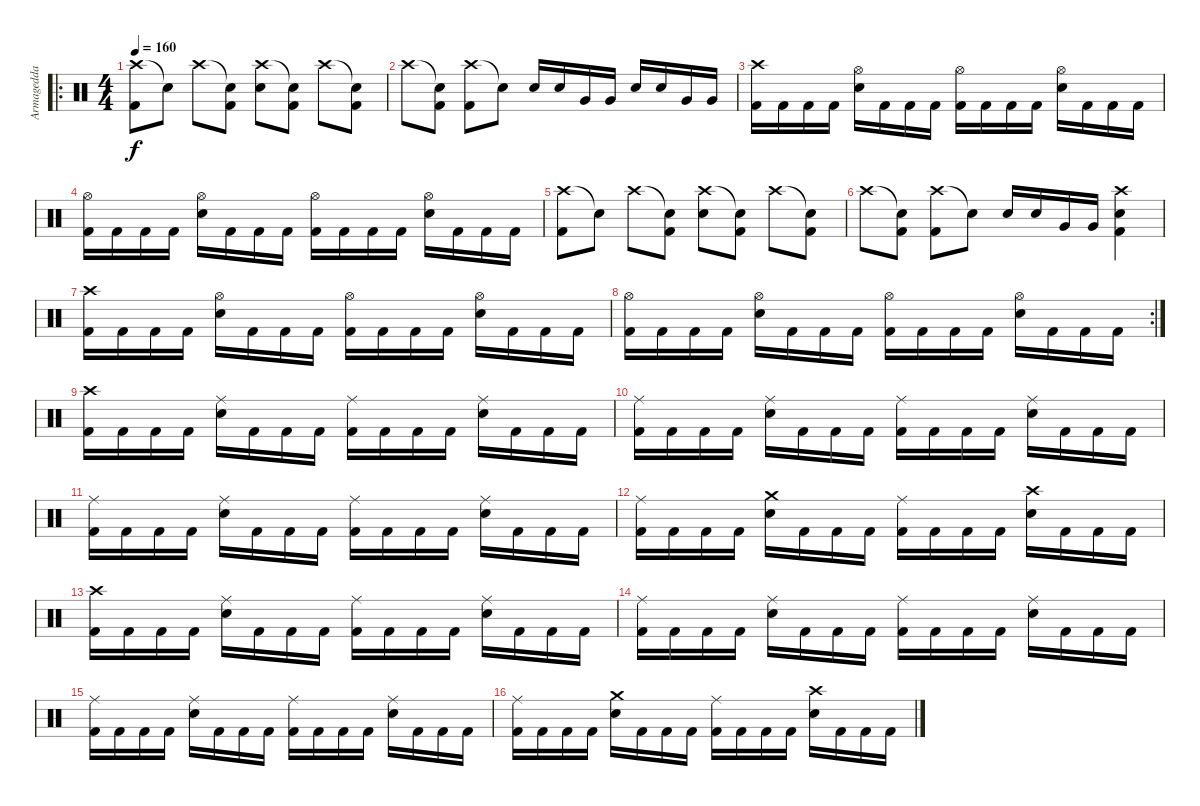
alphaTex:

\track ("Armagedda" "Armagedda") {instrument percussion}
\staff {score}
\articulation defaults
\ro
\ts (4 4)
\tempo 160
\clef neutral
\ks c
("Crash high (hit)" "Kick (hit) 2").8{dy f} "Snare (hit)"{t}.8 "Crash high (hit)".8 ("Snare (hit)"{t} "Kick (hit) 2").8 ("Crash high (hit)" "Snare (hit) 2").8 ("Snare (hit)"{t} "Kick (hit) 2").8 "Crash high (hit)".8 ("Snare (hit)"{t} "Kick (hit) 2").8 |
"Crash high (hit)".8 ("Snare (hit)"{t} "Kick (hit) 2").8 ("Crash high (hit)" "Kick (hit) 2").8 "Snare (hit)"{t}.8 "Snare (hit) 2".16 "Snare (hit) 2".16 "Very Low Tom (hit)".16 "Very Low Tom (hit)".16 "Snare (hit) 2".16 "Snare (hit) 2".16 "Very Low Tom (hit)".16 "Very Low Tom (hit)".16 |
("Crash high (hit)" "Kick (hit) 2").16 "Kick (hit) 2".16 "Kick (hit) 2".16 "Kick (hit) 2".16 ("Hi-Hat (open)" "Snare (hit) 2").16 "Kick (hit) 2".16 "Kick (hit) 2".16 "Kick (hit) 2".16 ("Hi-Hat (open)" "Kick (hit) 2").16 "Kick (hit) 2".16 "Kick (hit) 2".16 "Kick (hit) 2".16 ("Hi-Hat (open)" "Snare (hit) 2").16 "Kick (hit) 2".16 "Kick (hit) 2".16 "Kick (hit) 2".16 |
("Hi-Hat (open)" "Kick (hit) 2").16 "Kick (hit) 2".16 "Kick (hit) 2".16 "Kick (hit) 2".16 ("Hi-Hat (open)" "Snare (hit) 2").16 "Kick (hit) 2".16 "Kick (hit) 2".16 "Kick (hit) 2".16 ("Hi-Hat (open)" "Kick (hit) 2").16 "Kick (hit) 2".16 "Kick (hit) 2".16 "Kick (hit) 2".16 ("Hi-Hat (open)" "Snare (hit) 2").16 "Kick (hit) 2".16 "Kick (hit) 2".16 "Kick (hit) 2".16 |
("Crash high (hit)" "Kick (hit) 2").8 "Snare (hit)"{t}.8 "Crash high (hit)".8 ("Snare (hit)"{t} "Kick (hit) 2").8 ("Crash high (hit)" "Snare (hit) 2").8 ("Snare (hit)"{t} "Kick (hit) 2").8 "Crash high (hit)".8 ("Snare (hit)"{t} "Kick (hit) 2").8 |
"Crash high (hit)".8 ("Snare (hit)"{t} "Kick (hit) 2").8 ("Crash high (hit)" "Kick (hit) 2").8 "Snare (hit)"{t}.8 "Snare (hit) 2".16 "Snare (hit) 2".16 "Very Low Tom (hit)".16 "Very Low Tom (hit)".16 ("Crash high (hit)" "Snare (hit) 2" "Kick (hit) 2").4 |
("Crash high (hit)" "Kick (hit) 2").16 "Kick (hit) 2".16 "Kick (hit) 2".16 "Kick (hit) 2".16 ("Hi-Hat (open)" "Snare (hit) 2").16 "Kick (hit) 2".16 "Kick (hit) 2".16 "Kick (hit) 2".16 ("Hi-Hat (open)" "Kick (hit) 2").16 "Kick (hit) 2".16 "Kick (hit) 2".16 "Kick (hit) 2".16 ("Hi-Hat (open)" "Snare (hit) 2").16 "Kick (hit) 2".16 "Kick (hit) 2".16 "Kick (hit) 2".16 |
\rc 2
("Hi-Hat (open)" "Kick (hit) 2").16 "Kick (hit) 2".16 "Kick (hit) 2".16 "Kick (hit) 2".16 ("Hi-Hat (open)" "Snare (hit) 2").16 "Kick (hit) 2".16 "Kick (hit) 2".16 "Kick (hit) 2".16 ("Hi-Hat (open)" "Kick (hit) 2").16 "Kick (hit) 2".16 "Kick (hit) 2".16 "Kick (hit) 2".16 ("Hi-Hat (open)" "Snare (hit) 2").16 "Kick (hit) 2".16 "Kick (hit) 2".16 "Kick (hit) 2".16 |
("Crash high (hit)" "Kick (hit) 2").16 "Kick (hit) 2".16 "Kick (hit) 2".16 "Kick (hit) 2".16 ("Ride (middle)" "Snare (hit) 2").16 "Kick (hit) 2".16 "Kick (hit) 2".16 "Kick (hit) 2".16 ("Ride (middle)" "Kick (hit) 2").16 "Kick (hit) 2".16 "Kick (hit) 2".16 "Kick (hit) 2".16 ("Ride (middle)" "Snare (hit) 2").16 "Kick (hit) 2".16 "Kick (hit) 2".16 "Kick (hit) 2".16 |
("Ride (middle)" "Kick (hit) 2").16 "Kick (hit) 2".16 "Kick (hit) 2".16 "Kick (hit) 2".16 ("Ride (middle)" "Snare (hit) 2").16 "Kick (hit) 2".16 "Kick (hit) 2".16 "Kick (hit) 2".16 ("Ride (middle)" "Kick (hit) 2").16 "Kick (hit) 2".16 "Kick (hit) 2".16 "Kick (hit) 2".16 ("Ride (middle)" "Snare (hit) 2").16 "Kick (hit) 2".16 "Kick (hit) 2".16 "Kick (hit) 2".16 |
("Ride (middle)" "Kick (hit) 2").16 "Kick (hit) 2".16 "Kick (hit) 2".16 "Kick (hit) 2".16 ("Ride (middle)" "Snare (hit) 2").16 "Kick (hit) 2".16 "Kick (hit) 2".16 "Kick (hit) 2".16 ("Ride (middle)" "Kick (hit) 2").16 "Kick (hit) 2".16 "Kick (hit) 2".16 "Kick (hit) 2".16 ("Ride (middle)" "Snare (hit) 2").16 "Kick (hit) 2".16 "Kick (hit) 2".16 "Kick (hit) 2".16 |
("Ride (middle)" "Kick (hit) 2").16 "Kick (hit) 2".16 "Kick (hit) 2".16 "Kick (hit) 2".16 ("Crash medium (hit)" "Snare (hit) 2").16 "Kick (hit) 2".16 "Kick (hit) 2".16 "Kick (hit) 2".16 ("Ride (middle)" "Kick (hit) 2").16 "Kick (hit) 2".16 "Kick (hit) 2".16 "Kick (hit) 2".16 ("Crash high (hit)" "Snare (hit) 2").16 "Kick (hit) 2".16 "Kick (hit) 2".16 "Kick (hit) 2".16 |
("Crash high (hit)" "Kick (hit) 2").16 "Kick (hit) 2".16 "Kick (hit) 2".16 "Kick (hit) 2".16 ("Ride (middle)" "Snare (hit) 2").16 "Kick (hit) 2".16 "Kick (hit) 2".16 "Kick (hit) 2".16 ("Ride (middle)" "Kick (hit) 2").16 "Kick (hit) 2".16 "Kick (hit) 2".16 "Kick (hit) 2".16 ("Ride (middle)" "Snare (hit) 2").16 "Kick (hit) 2".16 "Kick (hit) 2".16 "Kick (hit) 2".16 |
("Ride (middle)" "Kick (hit) 2").16 "Kick (hit) 2".16 "Kick (hit) 2".16 "Kick (hit) 2".16 ("Ride (middle)" "Snare (hit) 2").16 "Kick (hit) 2".16 "Kick (hit) 2".16 "Kick (hit) 2".16 ("Ride (middle)" "Kick (hit) 2").16 "Kick (hit) 2".16 "Kick (hit) 2".16 "Kick (hit) 2".16 ("Ride (middle)" "Snare (hit) 2").16 "Kick (hit) 2".16 "Kick (hit) 2".16 "Kick (hit) 2".16 |
("Ride (middle)" "Kick (hit) 2").16 "Kick (hit) 2".16 "Kick (hit) 2".16 "Kick (hit) 2".16 ("Ride (middle)" "Snare (hit) 2").16 "Kick (hit) 2".16 "Kick (hit) 2".16 "Kick (hit) 2".16 ("Ride (middle)" "Kick (hit) 2").16 "Kick (hit) 2".16 "Kick (hit) 2".16 "Kick (hit) 2".16 ("Ride (middle)" "Snare (hit) 2").16 "Kick (hit) 2".16 "Kick (hit) 2".16 "Kick (hit) 2".16 |
("Ride (middle)" "Kick (hit) 2").16 "Kick (hit) 2".16 "Kick (hit) 2".16 "Kick (hit) 2".16 ("Crash medium (hit)" "Snare (hit) 2").16 "Kick (hit) 2".16 "Kick (hit) 2".16 "Kick (hit) 2".16 ("Ride (middle)" "Kick (hit) 2").16 "Kick (hit) 2".16 "Kick (hit) 2".16 "Kick (hit) 2".16 ("Crash high (hit)" "Snare (hit) 2").16 "Kick (hit) 2".16 "Kick (hit) 2".16 "Kick (hit) 2".16
